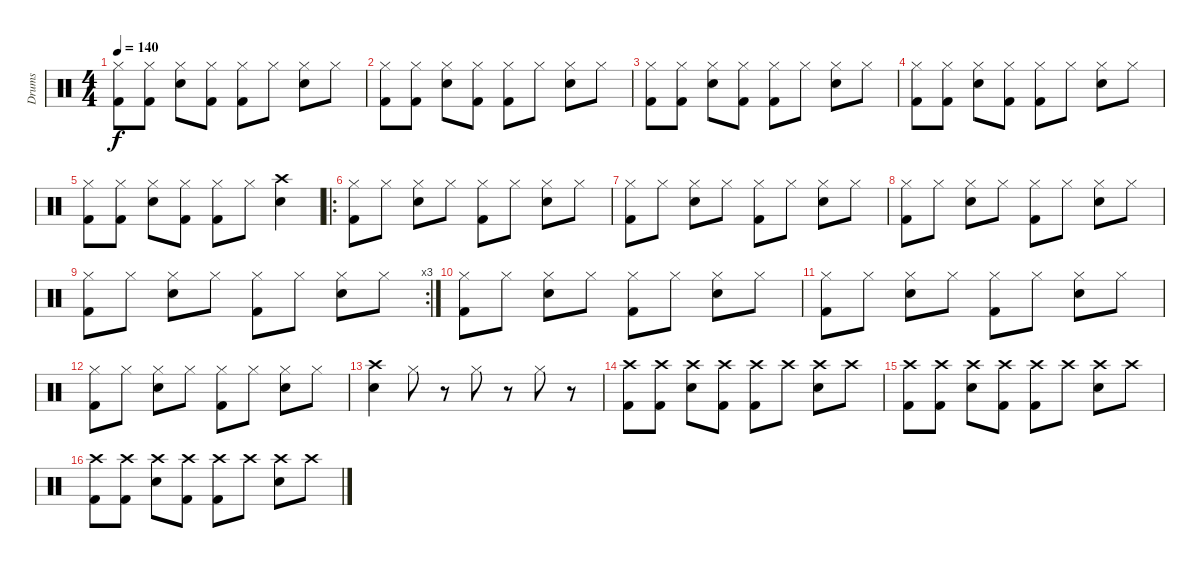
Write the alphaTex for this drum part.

\track ("Drums" "Drums") {instrument percussion}
\staff {score}
\articulation defaults
\ts (4 4)
\tempo 140
\clef neutral
\ks c
("Hi-Hat (closed)" "Kick (hit) 2").8{dy f} ("Hi-Hat (closed)" "Kick (hit) 2").8 ("Hi-Hat (closed)" "Electric Snare (hit)").8 ("Hi-Hat (closed)" "Kick (hit) 2").8 ("Hi-Hat (closed)" "Kick (hit) 2").8 "Hi-Hat (closed)".8 ("Hi-Hat (closed)" "Electric Snare (hit)").8 "Hi-Hat (closed)".8 |
("Hi-Hat (closed)" "Kick (hit) 2").8 ("Hi-Hat (closed)" "Kick (hit) 2").8 ("Hi-Hat (closed)" "Electric Snare (hit)").8 ("Hi-Hat (closed)" "Kick (hit) 2").8 ("Hi-Hat (closed)" "Kick (hit) 2").8 "Hi-Hat (closed)".8 ("Hi-Hat (closed)" "Electric Snare (hit)").8 "Hi-Hat (closed)".8 |
("Hi-Hat (closed)" "Kick (hit) 2").8 ("Hi-Hat (closed)" "Kick (hit) 2").8 ("Hi-Hat (closed)" "Electric Snare (hit)").8 ("Hi-Hat (closed)" "Kick (hit) 2").8 ("Hi-Hat (closed)" "Kick (hit) 2").8 "Hi-Hat (closed)".8 ("Hi-Hat (closed)" "Electric Snare (hit)").8 "Hi-Hat (closed)".8 |
("Hi-Hat (closed)" "Kick (hit) 2").8 ("Hi-Hat (closed)" "Kick (hit) 2").8 ("Hi-Hat (closed)" "Electric Snare (hit)").8 ("Hi-Hat (closed)" "Kick (hit) 2").8 ("Hi-Hat (closed)" "Kick (hit) 2").8 "Hi-Hat (closed)".8 ("Hi-Hat (closed)" "Electric Snare (hit)").8 "Hi-Hat (closed)".8 |
("Hi-Hat (closed)" "Kick (hit) 2").8 ("Hi-Hat (closed)" "Kick (hit) 2").8 ("Hi-Hat (closed)" "Electric Snare (hit)").8 ("Hi-Hat (closed)" "Kick (hit) 2").8 ("Hi-Hat (closed)" "Kick (hit) 2").8 "Hi-Hat (closed)".8 ("Crash high (hit)" "Electric Snare (hit)").4 |
\ro
("Hi-Hat (closed)" "Kick (hit) 2").8 "Hi-Hat (closed)".8 ("Hi-Hat (closed)" "Electric Snare (hit)").8 "Hi-Hat (closed)".8 ("Hi-Hat (closed)" "Kick (hit) 2").8 "Hi-Hat (closed)".8 ("Hi-Hat (closed)" "Electric Snare (hit)").8 "Hi-Hat (closed)".8 |
("Hi-Hat (closed)" "Kick (hit) 2").8 "Hi-Hat (closed)".8 ("Hi-Hat (closed)" "Electric Snare (hit)").8 "Hi-Hat (closed)".8 ("Hi-Hat (closed)" "Kick (hit) 2").8 "Hi-Hat (closed)".8 ("Hi-Hat (closed)" "Electric Snare (hit)").8 "Hi-Hat (closed)".8 |
("Hi-Hat (closed)" "Kick (hit) 2").8 "Hi-Hat (closed)".8 ("Hi-Hat (closed)" "Electric Snare (hit)").8 "Hi-Hat (closed)".8 ("Hi-Hat (closed)" "Kick (hit) 2").8 "Hi-Hat (closed)".8 ("Hi-Hat (closed)" "Electric Snare (hit)").8 "Hi-Hat (closed)".8 |
\rc 3
("Hi-Hat (closed)" "Kick (hit) 2").8 "Hi-Hat (closed)".8 ("Hi-Hat (closed)" "Electric Snare (hit)").8 "Hi-Hat (closed)".8 ("Hi-Hat (closed)" "Kick (hit) 2").8 "Hi-Hat (closed)".8 ("Hi-Hat (closed)" "Electric Snare (hit)").8 "Hi-Hat (closed)".8 |
("Hi-Hat (closed)" "Kick (hit) 2").8 "Hi-Hat (closed)".8 ("Hi-Hat (closed)" "Electric Snare (hit)").8 "Hi-Hat (closed)".8 ("Hi-Hat (closed)" "Kick (hit) 2").8 "Hi-Hat (closed)".8 ("Hi-Hat (closed)" "Electric Snare (hit)").8 "Hi-Hat (closed)".8 |
("Hi-Hat (closed)" "Kick (hit) 2").8 "Hi-Hat (closed)".8 ("Hi-Hat (closed)" "Electric Snare (hit)").8 "Hi-Hat (closed)".8 ("Hi-Hat (closed)" "Kick (hit) 2").8 "Hi-Hat (closed)".8 ("Hi-Hat (closed)" "Electric Snare (hit)").8 "Hi-Hat (closed)".8 |
("Hi-Hat (closed)" "Kick (hit) 2").8 "Hi-Hat (closed)".8 ("Hi-Hat (closed)" "Electric Snare (hit)").8 "Hi-Hat (closed)".8 ("Hi-Hat (closed)" "Kick (hit) 2").8 "Hi-Hat (closed)".8 ("Hi-Hat (closed)" "Electric Snare (hit)").8 "Hi-Hat (closed)".8 |
("Crash high (hit)" "Electric Snare (hit)").4 "Hi-Hat (closed)".8 r.8 "Hi-Hat (closed)".8 r.8 "Hi-Hat (closed)".8 r.8 |
("Crash high (hit)" "Kick (hit) 2").8 ("Crash high (hit)" "Kick (hit) 2").8 ("Crash high (hit)" "Electric Snare (hit)").8 ("Crash high (hit)" "Kick (hit) 2").8 ("Crash high (hit)" "Kick (hit) 2").8 "Crash high (hit)".8 ("Crash high (hit)" "Electric Snare (hit)").8 "Crash high (hit)".8 |
("Crash high (hit)" "Kick (hit) 2").8 ("Crash high (hit)" "Kick (hit) 2").8 ("Crash high (hit)" "Electric Snare (hit)").8 ("Crash high (hit)" "Kick (hit) 2").8 ("Crash high (hit)" "Kick (hit) 2").8 "Crash high (hit)".8 ("Crash high (hit)" "Electric Snare (hit)").8 "Crash high (hit)".8 |
("Crash high (hit)" "Kick (hit) 2").8 ("Crash high (hit)" "Kick (hit) 2").8 ("Crash high (hit)" "Electric Snare (hit)").8 ("Crash high (hit)" "Kick (hit) 2").8 ("Crash high (hit)" "Kick (hit) 2").8 "Crash high (hit)".8 ("Crash high (hit)" "Electric Snare (hit)").8 "Crash high (hit)".8
